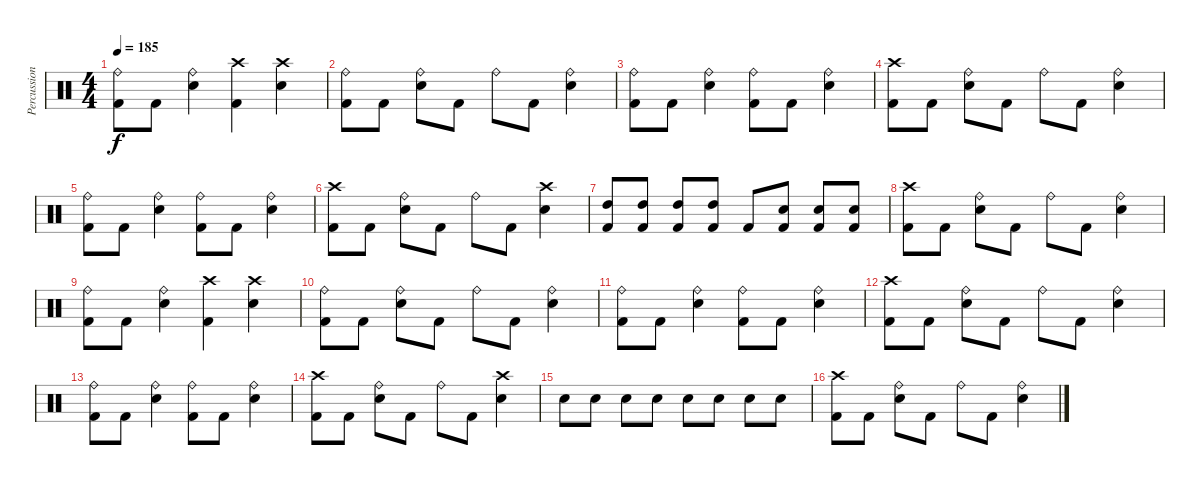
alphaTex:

\track ("Percussion" "Percussion") {instrument percussion}
\staff {score}
\articulation defaults
\ts (4 4)
\tempo 185
\clef neutral
\ks c
("Ride (bell)" "Kick (hit) 2").8{dy f} "Kick (hit) 2".8 ("Ride (bell)" "Snare (hit) 2").4 ("Crash high (hit)" "Kick (hit) 2").4 ("Crash high (hit)" "Snare (hit) 2").4 |
("Ride (bell)" "Kick (hit) 2").8 "Kick (hit) 2".8 ("Ride (bell)" "Snare (hit) 2").8 "Kick (hit) 2".8 "Ride (bell)".8 "Kick (hit) 2".8 ("Ride (bell)" "Snare (hit) 2").4 |
("Ride (bell)" "Kick (hit) 2").8 "Kick (hit) 2".8 ("Ride (bell)" "Snare (hit) 2").4 ("Ride (bell)" "Kick (hit) 2").8 "Kick (hit) 2".8 ("Ride (bell)" "Snare (hit) 2").4 |
("Crash high (hit)" "Kick (hit) 2").8 "Kick (hit) 2".8 ("Ride (bell)" "Snare (hit) 2").8 "Kick (hit) 2".8 "Ride (bell)".8 "Kick (hit) 2".8 ("Ride (bell)" "Snare (hit) 2").4 |
("Ride (bell)" "Kick (hit) 2").8 "Kick (hit) 2".8 ("Ride (bell)" "Snare (hit) 2").4 ("Ride (bell)" "Kick (hit) 2").8 "Kick (hit) 2".8 ("Ride (bell)" "Snare (hit) 2").4 |
("Crash high (hit)" "Kick (hit) 2").8 "Kick (hit) 2".8 ("Ride (bell)" "Snare (hit) 2").8 "Kick (hit) 2".8 "Ride (bell)".8 "Kick (hit) 2".8 ("Crash high (hit)" "Snare (hit) 2").4 |
("High Tom (hit)" "Kick (hit) 2").8 ("High Tom (hit)" "Kick (hit) 2").8 ("High Tom (hit)" "Kick (hit) 2").8 ("High Tom (hit)" "Kick (hit) 2").8 "Kick (hit) 2".8 ("Snare (hit) 2" "Kick (hit) 2").8 ("Snare (hit) 2" "Kick (hit) 2").8 ("Snare (hit) 2" "Kick (hit) 2").8 |
("Crash high (hit)" "Kick (hit) 2").8 "Kick (hit) 2".8 ("Ride (bell)" "Snare (hit) 2").8 "Kick (hit) 2".8 "Ride (bell)".8 "Kick (hit) 2".8 ("Ride (bell)" "Snare (hit) 2").4 |
("Ride (bell)" "Kick (hit) 2").8 "Kick (hit) 2".8 ("Ride (bell)" "Snare (hit) 2").4 ("Crash high (hit)" "Kick (hit) 2").4 ("Crash high (hit)" "Snare (hit) 2").4 |
("Ride (bell)" "Kick (hit) 2").8 "Kick (hit) 2".8 ("Ride (bell)" "Snare (hit) 2").8 "Kick (hit) 2".8 "Ride (bell)".8 "Kick (hit) 2".8 ("Ride (bell)" "Snare (hit) 2").4 |
("Ride (bell)" "Kick (hit) 2").8 "Kick (hit) 2".8 ("Ride (bell)" "Snare (hit) 2").4 ("Ride (bell)" "Kick (hit) 2").8 "Kick (hit) 2".8 ("Ride (bell)" "Snare (hit) 2").4 |
("Crash high (hit)" "Kick (hit) 2").8 "Kick (hit) 2".8 ("Ride (bell)" "Snare (hit) 2").8 "Kick (hit) 2".8 "Ride (bell)".8 "Kick (hit) 2".8 ("Ride (bell)" "Snare (hit) 2").4 |
("Ride (bell)" "Kick (hit) 2").8 "Kick (hit) 2".8 ("Ride (bell)" "Snare (hit) 2").4 ("Ride (bell)" "Kick (hit) 2").8 "Kick (hit) 2".8 ("Ride (bell)" "Snare (hit) 2").4 |
("Crash high (hit)" "Kick (hit) 2").8 "Kick (hit) 2".8 ("Ride (bell)" "Snare (hit) 2").8 "Kick (hit) 2".8 "Ride (bell)".8 "Kick (hit) 2".8 ("Crash high (hit)" "Snare (hit) 2").4 |
"Snare (hit) 2".8 "Snare (hit) 2".8 "Snare (hit) 2".8 "Snare (hit) 2".8 "Snare (hit) 2".8 "Snare (hit) 2".8 "Snare (hit) 2".8 "Snare (hit) 2".8 |
("Crash high (hit)" "Kick (hit) 2").8 "Kick (hit) 2".8 ("Ride (bell)" "Snare (hit) 2").8 "Kick (hit) 2".8 "Ride (bell)".8 "Kick (hit) 2".8 ("Ride (bell)" "Snare (hit) 2").4
